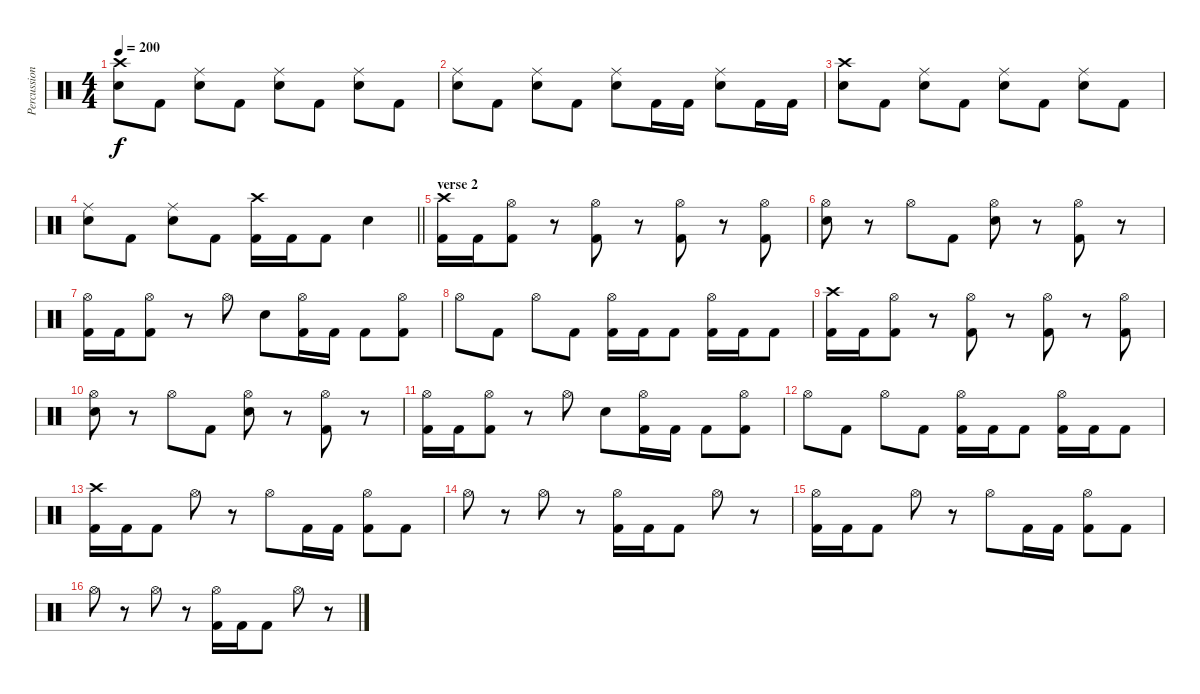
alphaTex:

\track ("Percussion" "Percussion") {instrument percussion}
\staff {score}
\articulation defaults
\ts (4 4)
\tempo 200
\clef neutral
\ks c
("Crash high (hit)" "Snare (hit) 2").8{dy f} "Kick (hit) 2".8 ("Ride (middle)" "Snare (hit) 2").8 "Kick (hit) 2".8 ("Ride (middle)" "Snare (hit) 2").8 "Kick (hit) 2".8 ("Ride (middle)" "Snare (hit) 2").8 "Kick (hit) 2".8 |
("Ride (middle)" "Snare (hit) 2").8 "Kick (hit) 2".8 ("Ride (middle)" "Snare (hit) 2").8 "Kick (hit) 2".8 ("Ride (middle)" "Snare (hit) 2").8 "Kick (hit) 2".16 "Kick (hit) 2".16 ("Ride (middle)" "Snare (hit) 2").8 "Kick (hit) 2".16 "Kick (hit) 2".16 |
("Crash high (hit)" "Snare (hit) 2").8 "Kick (hit) 2".8 ("Ride (middle)" "Snare (hit) 2").8 "Kick (hit) 2".8 ("Ride (middle)" "Snare (hit) 2").8 "Kick (hit) 2".8 ("Ride (middle)" "Snare (hit) 2").8 "Kick (hit) 2".8 |
\barLineRight lightlight
("Ride (middle)" "Snare (hit) 2").8 "Kick (hit) 2".8 ("Ride (middle)" "Snare (hit) 2").8 "Kick (hit) 2".8 ("Crash high (hit)" "Kick (hit) 2").16 "Kick (hit) 2".16 "Kick (hit) 2".8 "Snare (hit) 2".4 |
\section ("" "verse 2")
("Crash high (hit)" "Kick (hit) 2").16 "Kick (hit) 2".16 ("Hi-Hat (open)" "Kick (hit) 2").8 r.8 ("Hi-Hat (open)" "Kick (hit) 2").8 r.8 ("Hi-Hat (open)" "Kick (hit) 2").8 r.8 ("Hi-Hat (open)" "Kick (hit) 2").8 |
("Hi-Hat (open)" "Snare (hit) 2").8 r.8 "Hi-Hat (open)".8 "Kick (hit) 2".8 ("Hi-Hat (open)" "Snare (hit) 2").8 r.8 ("Hi-Hat (open)" "Kick (hit) 2").8 r.8 |
("Hi-Hat (open)" "Kick (hit) 2").16 "Kick (hit) 2".16 ("Hi-Hat (open)" "Kick (hit) 2").8 r.8 "Hi-Hat (open)".8 "Snare (hit) 2".8 ("Hi-Hat (open)" "Kick (hit) 2").16 "Kick (hit) 2".16 "Kick (hit) 2".8 ("Hi-Hat (open)" "Kick (hit) 2").8 |
"Hi-Hat (open)".8 "Kick (hit) 2".8 "Hi-Hat (open)".8 "Kick (hit) 2".8 ("Hi-Hat (open)" "Kick (hit) 2").16 "Kick (hit) 2".16 "Kick (hit) 2".8 ("Hi-Hat (open)" "Kick (hit) 2").16 "Kick (hit) 2".16 "Kick (hit) 2".8 |
("Crash high (hit)" "Kick (hit) 2").16 "Kick (hit) 2".16 ("Hi-Hat (open)" "Kick (hit) 2").8 r.8 ("Hi-Hat (open)" "Kick (hit) 2").8 r.8 ("Hi-Hat (open)" "Kick (hit) 2").8 r.8 ("Hi-Hat (open)" "Kick (hit) 2").8 |
("Hi-Hat (open)" "Snare (hit) 2").8 r.8 "Hi-Hat (open)".8 "Kick (hit) 2".8 ("Hi-Hat (open)" "Snare (hit) 2").8 r.8 ("Hi-Hat (open)" "Kick (hit) 2").8 r.8 |
("Hi-Hat (open)" "Kick (hit) 2").16 "Kick (hit) 2".16 ("Hi-Hat (open)" "Kick (hit) 2").8 r.8 "Hi-Hat (open)".8 "Snare (hit) 2".8 ("Hi-Hat (open)" "Kick (hit) 2").16 "Kick (hit) 2".16 "Kick (hit) 2".8 ("Hi-Hat (open)" "Kick (hit) 2").8 |
"Hi-Hat (open)".8 "Kick (hit) 2".8 "Hi-Hat (open)".8 "Kick (hit) 2".8 ("Hi-Hat (open)" "Kick (hit) 2").16 "Kick (hit) 2".16 "Kick (hit) 2".8 ("Hi-Hat (open)" "Kick (hit) 2").16 "Kick (hit) 2".16 "Kick (hit) 2".8 |
("Crash high (hit)" "Kick (hit) 2").16 "Kick (hit) 2".16 "Kick (hit) 2".8 "Hi-Hat (open)".8 r.8 "Hi-Hat (open)".8 "Kick (hit) 2".16 "Kick (hit) 2".16 ("Hi-Hat (open)" "Kick (hit) 2").8 "Kick (hit) 2".8 |
"Hi-Hat (open)".8 r.8 "Hi-Hat (open)".8 r.8 ("Hi-Hat (open)" "Kick (hit) 2").16 "Kick (hit) 2".16 "Kick (hit) 2".8 "Hi-Hat (open)".8 r.8 |
("Hi-Hat (open)" "Kick (hit) 2").16 "Kick (hit) 2".16 "Kick (hit) 2".8 "Hi-Hat (open)".8 r.8 "Hi-Hat (open)".8 "Kick (hit) 2".16 "Kick (hit) 2".16 ("Hi-Hat (open)" "Kick (hit) 2").8 "Kick (hit) 2".8 |
"Hi-Hat (open)".8 r.8 "Hi-Hat (open)".8 r.8 ("Hi-Hat (open)" "Kick (hit) 2").16 "Kick (hit) 2".16 "Kick (hit) 2".8 "Hi-Hat (open)".8 r.8
